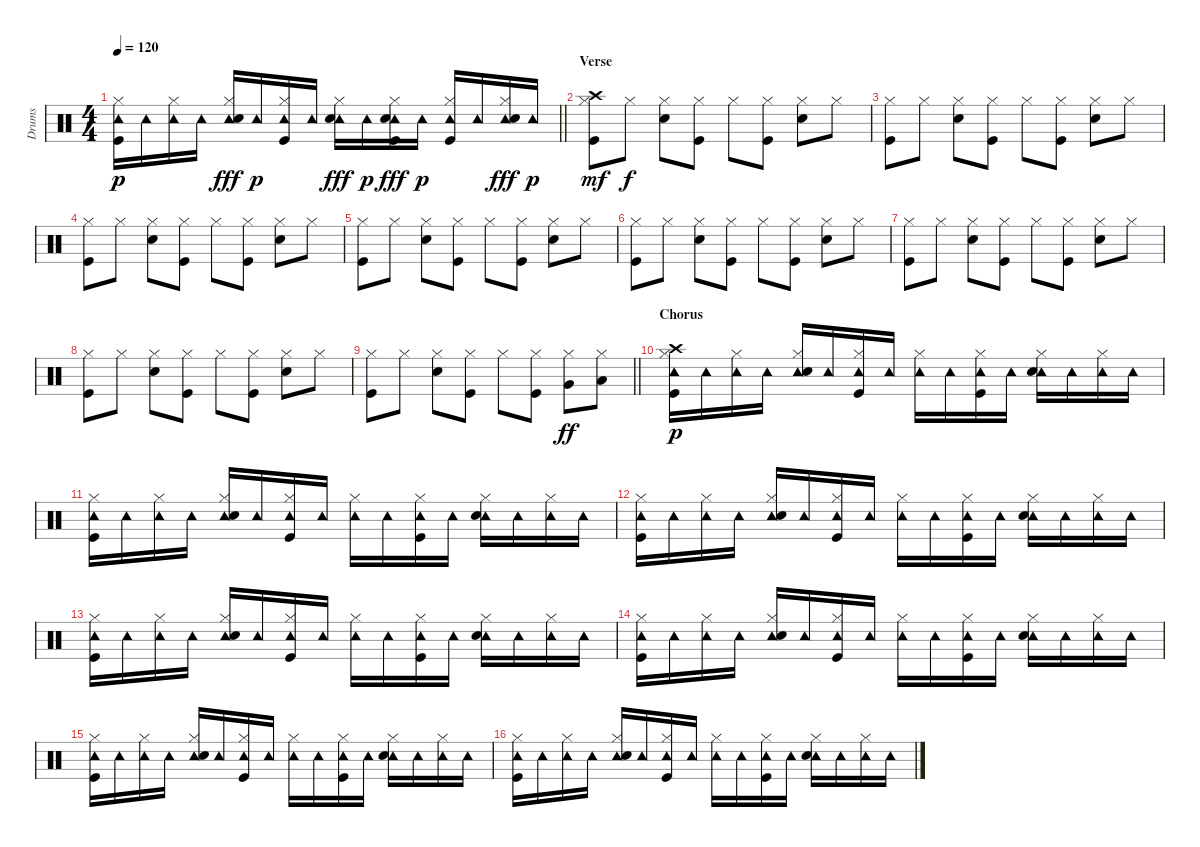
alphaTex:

\track ("Drums" "Drums") {instrument percussion}
\staff {score}
\articulation defaults
\ts (4 4)
\tempo 120
\clef neutral
\barLineRight lightlight
\ks c
("Tambourine (hit)" "Hi-Hat (closed)" "Kick (hit)").16{dy p} "Tambourine (hit)".16 ("Tambourine (hit)" "Hi-Hat (closed)").16 "Tambourine (hit)".16 ("Tambourine (hit)" "Hi-Hat (closed)" "Snare (hit) 2").16{dy fff} "Tambourine (hit)".16{dy p} ("Tambourine (hit)" "Hi-Hat (closed)" "Kick (hit)").16 "Tambourine (hit)".16 ("Tambourine (hit)" "Hi-Hat (closed)" "Snare (hit) 2").16{dy fff} "Tambourine (hit)".16{dy p} ("Tambourine (hit)" "Hi-Hat (closed)" "Snare (hit) 2" "Kick (hit)").16{dy fff} "Tambourine (hit)".16{dy p} ("Tambourine (hit)" "Hi-Hat (closed)" "Kick (hit)").16 "Tambourine (hit)".16 ("Tambourine (hit)" "Hi-Hat (closed)" "Snare (hit) 2").16{dy fff} "Tambourine (hit)".16{dy p} |
\section ("" "Verse")
("Crash high (hit)" "Hi-Hat (closed)" "Kick (hit)").8{dy mf} "Hi-Hat (closed)".8{dy f} ("Hi-Hat (closed)" "Snare (hit) 2").8 ("Hi-Hat (closed)" "Kick (hit)").8 "Hi-Hat (closed)".8 ("Hi-Hat (closed)" "Kick (hit)").8 ("Hi-Hat (closed)" "Snare (hit) 2").8 "Hi-Hat (closed)".8 |
("Hi-Hat (closed)" "Kick (hit)").8 "Hi-Hat (closed)".8 ("Hi-Hat (closed)" "Snare (hit) 2").8 ("Hi-Hat (closed)" "Kick (hit)").8 "Hi-Hat (closed)".8 ("Hi-Hat (closed)" "Kick (hit)").8 ("Hi-Hat (closed)" "Snare (hit) 2").8 "Hi-Hat (closed)".8 |
("Hi-Hat (closed)" "Kick (hit)").8 "Hi-Hat (closed)".8 ("Hi-Hat (closed)" "Snare (hit) 2").8 ("Hi-Hat (closed)" "Kick (hit)").8 "Hi-Hat (closed)".8 ("Hi-Hat (closed)" "Kick (hit)").8 ("Hi-Hat (closed)" "Snare (hit) 2").8 "Hi-Hat (closed)".8 |
("Hi-Hat (closed)" "Kick (hit)").8 "Hi-Hat (closed)".8 ("Hi-Hat (closed)" "Snare (hit) 2").8 ("Hi-Hat (closed)" "Kick (hit)").8 "Hi-Hat (closed)".8 ("Hi-Hat (closed)" "Kick (hit)").8 ("Hi-Hat (closed)" "Snare (hit) 2").8 "Hi-Hat (closed)".8 |
("Hi-Hat (closed)" "Kick (hit)").8 "Hi-Hat (closed)".8 ("Hi-Hat (closed)" "Snare (hit) 2").8 ("Hi-Hat (closed)" "Kick (hit)").8 "Hi-Hat (closed)".8 ("Hi-Hat (closed)" "Kick (hit)").8 ("Hi-Hat (closed)" "Snare (hit) 2").8 "Hi-Hat (closed)".8 |
("Hi-Hat (closed)" "Kick (hit)").8 "Hi-Hat (closed)".8 ("Hi-Hat (closed)" "Snare (hit) 2").8 ("Hi-Hat (closed)" "Kick (hit)").8 "Hi-Hat (closed)".8 ("Hi-Hat (closed)" "Kick (hit)").8 ("Hi-Hat (closed)" "Snare (hit) 2").8 "Hi-Hat (closed)".8 |
("Hi-Hat (closed)" "Kick (hit)").8 "Hi-Hat (closed)".8 ("Hi-Hat (closed)" "Snare (hit) 2").8 ("Hi-Hat (closed)" "Kick (hit)").8 "Hi-Hat (closed)".8 ("Hi-Hat (closed)" "Kick (hit)").8 ("Hi-Hat (closed)" "Snare (hit) 2").8 "Hi-Hat (closed)".8 |
\barLineRight lightlight
("Hi-Hat (closed)" "Kick (hit)").8 "Hi-Hat (closed)".8 ("Hi-Hat (closed)" "Snare (hit) 2").8 ("Hi-Hat (closed)" "Kick (hit)").8 "Hi-Hat (closed)".8 ("Hi-Hat (closed)" "Kick (hit)").8 ("Hi-Hat (closed)" "Very Low Tom (hit)").8{dy ff} ("Hi-Hat (closed)" "Low Floor Tom (hit)").8 |
\section ("" "Chorus")
("Crash high (hit)" "Tambourine (hit)" "Hi-Hat (closed)" "Kick (hit)").16{dy p} "Tambourine (hit)".16 ("Tambourine (hit)" "Hi-Hat (closed)").16 "Tambourine (hit)".16 ("Tambourine (hit)" "Hi-Hat (closed)" "Snare (hit) 2").16 "Tambourine (hit)".16 ("Tambourine (hit)" "Hi-Hat (closed)" "Kick (hit)").16 "Tambourine (hit)".16 ("Tambourine (hit)" "Hi-Hat (closed)").16 "Tambourine (hit)".16 ("Tambourine (hit)" "Hi-Hat (closed)" "Kick (hit)").16 "Tambourine (hit)".16 ("Tambourine (hit)" "Hi-Hat (closed)" "Snare (hit) 2").16 "Tambourine (hit)".16 ("Tambourine (hit)" "Hi-Hat (closed)").16 "Tambourine (hit)".16 |
("Tambourine (hit)" "Hi-Hat (closed)" "Kick (hit)").16 "Tambourine (hit)".16 ("Tambourine (hit)" "Hi-Hat (closed)").16 "Tambourine (hit)".16 ("Tambourine (hit)" "Hi-Hat (closed)" "Snare (hit) 2").16 "Tambourine (hit)".16 ("Tambourine (hit)" "Hi-Hat (closed)" "Kick (hit)").16 "Tambourine (hit)".16 ("Tambourine (hit)" "Hi-Hat (closed)").16 "Tambourine (hit)".16 ("Tambourine (hit)" "Hi-Hat (closed)" "Kick (hit)").16 "Tambourine (hit)".16 ("Tambourine (hit)" "Hi-Hat (closed)" "Snare (hit) 2").16 "Tambourine (hit)".16 ("Tambourine (hit)" "Hi-Hat (closed)").16 "Tambourine (hit)".16 |
("Tambourine (hit)" "Hi-Hat (closed)" "Kick (hit)").16 "Tambourine (hit)".16 ("Tambourine (hit)" "Hi-Hat (closed)").16 "Tambourine (hit)".16 ("Tambourine (hit)" "Hi-Hat (closed)" "Snare (hit) 2").16 "Tambourine (hit)".16 ("Tambourine (hit)" "Hi-Hat (closed)" "Kick (hit)").16 "Tambourine (hit)".16 ("Tambourine (hit)" "Hi-Hat (closed)").16 "Tambourine (hit)".16 ("Tambourine (hit)" "Hi-Hat (closed)" "Kick (hit)").16 "Tambourine (hit)".16 ("Tambourine (hit)" "Hi-Hat (closed)" "Snare (hit) 2").16 "Tambourine (hit)".16 ("Tambourine (hit)" "Hi-Hat (closed)").16 "Tambourine (hit)".16 |
("Tambourine (hit)" "Hi-Hat (closed)" "Kick (hit)").16 "Tambourine (hit)".16 ("Tambourine (hit)" "Hi-Hat (closed)").16 "Tambourine (hit)".16 ("Tambourine (hit)" "Hi-Hat (closed)" "Snare (hit) 2").16 "Tambourine (hit)".16 ("Tambourine (hit)" "Hi-Hat (closed)" "Kick (hit)").16 "Tambourine (hit)".16 ("Tambourine (hit)" "Hi-Hat (closed)").16 "Tambourine (hit)".16 ("Tambourine (hit)" "Hi-Hat (closed)" "Kick (hit)").16 "Tambourine (hit)".16 ("Tambourine (hit)" "Hi-Hat (closed)" "Snare (hit) 2").16 "Tambourine (hit)".16 ("Tambourine (hit)" "Hi-Hat (closed)").16 "Tambourine (hit)".16 |
("Tambourine (hit)" "Hi-Hat (closed)" "Kick (hit)").16 "Tambourine (hit)".16 ("Tambourine (hit)" "Hi-Hat (closed)").16 "Tambourine (hit)".16 ("Tambourine (hit)" "Hi-Hat (closed)" "Snare (hit) 2").16 "Tambourine (hit)".16 ("Tambourine (hit)" "Hi-Hat (closed)" "Kick (hit)").16 "Tambourine (hit)".16 ("Tambourine (hit)" "Hi-Hat (closed)").16 "Tambourine (hit)".16 ("Tambourine (hit)" "Hi-Hat (closed)" "Kick (hit)").16 "Tambourine (hit)".16 ("Tambourine (hit)" "Hi-Hat (closed)" "Snare (hit) 2").16 "Tambourine (hit)".16 ("Tambourine (hit)" "Hi-Hat (closed)").16 "Tambourine (hit)".16 |
("Tambourine (hit)" "Hi-Hat (closed)" "Kick (hit)").16 "Tambourine (hit)".16 ("Tambourine (hit)" "Hi-Hat (closed)").16 "Tambourine (hit)".16 ("Tambourine (hit)" "Hi-Hat (closed)" "Snare (hit) 2").16 "Tambourine (hit)".16 ("Tambourine (hit)" "Hi-Hat (closed)" "Kick (hit)").16 "Tambourine (hit)".16 ("Tambourine (hit)" "Hi-Hat (closed)").16 "Tambourine (hit)".16 ("Tambourine (hit)" "Hi-Hat (closed)" "Kick (hit)").16 "Tambourine (hit)".16 ("Tambourine (hit)" "Hi-Hat (closed)" "Snare (hit) 2").16 "Tambourine (hit)".16 ("Tambourine (hit)" "Hi-Hat (closed)").16 "Tambourine (hit)".16 |
("Tambourine (hit)" "Hi-Hat (closed)" "Kick (hit)").16 "Tambourine (hit)".16 ("Tambourine (hit)" "Hi-Hat (closed)").16 "Tambourine (hit)".16 ("Tambourine (hit)" "Hi-Hat (closed)" "Snare (hit) 2").16 "Tambourine (hit)".16 ("Tambourine (hit)" "Hi-Hat (closed)" "Kick (hit)").16 "Tambourine (hit)".16 ("Tambourine (hit)" "Hi-Hat (closed)").16 "Tambourine (hit)".16 ("Tambourine (hit)" "Hi-Hat (closed)" "Kick (hit)").16 "Tambourine (hit)".16 ("Tambourine (hit)" "Hi-Hat (closed)" "Snare (hit) 2").16 "Tambourine (hit)".16 ("Tambourine (hit)" "Hi-Hat (closed)").16 "Tambourine (hit)".16
